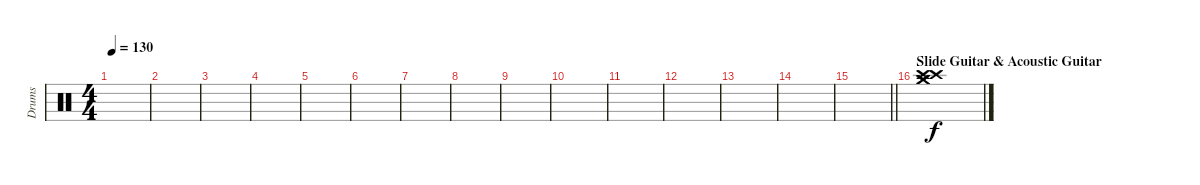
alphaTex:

\track ("Drums" "Drums") {instrument percussion}
\staff {score}
\articulation defaults
\ts (4 4)
\tempo 130
\clef neutral
\ks c
|
|
|
|
|
|
|
|
|
|
|
|
|
|
\barLineRight lightlight
|
\section ("" "Slide Guitar & Acoustic Guitar")
("Crash high (hit)" "Crash high (hit)" "Crash medium (hit)" "Crash medium (hit)").1
